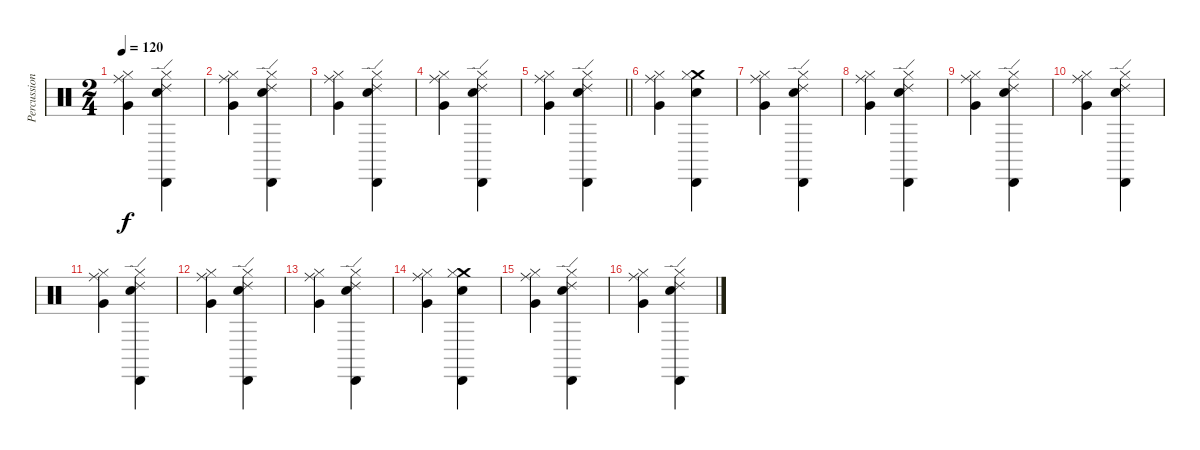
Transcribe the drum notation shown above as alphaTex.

\track ("Percussions" "Percussion") {instrument percussion}
\staff {score}
\articulation defaults
\ts (2 4)
\tempo 120
\clef neutral
\ks c
("Ride (middle)" "Hi-Hat (closed)" "Very Low Tom (hit)").4{dy f} ("Ride (edge) 2" "Cabasa (hit)" "Hi-Hat (closed)" "Electric Snare (hit)").4 |
("Ride (middle)" "Hi-Hat (closed)" "Very Low Tom (hit)").4 ("Ride (edge) 2" "Cabasa (hit)" "Hi-Hat (closed)" "Electric Snare (hit)").4 |
("Ride (middle)" "Hi-Hat (closed)" "Very Low Tom (hit)").4 ("Ride (edge) 2" "Cabasa (hit)" "Hi-Hat (closed)" "Electric Snare (hit)").4 |
("Ride (middle)" "Hi-Hat (closed)" "Very Low Tom (hit)").4 ("Ride (edge) 2" "Cabasa (hit)" "Hi-Hat (closed)" "Electric Snare (hit)").4 |
\barLineRight lightlight
("Ride (middle)" "Hi-Hat (closed)" "Very Low Tom (hit)").4 ("Ride (edge) 2" "Cabasa (hit)" "Hi-Hat (closed)" "Electric Snare (hit)").4 |
("Ride (middle)" "Hi-Hat (closed)" "Very Low Tom (hit)").4 ("Crash medium (hit)" "Cabasa (hit)" "Hi-Hat (closed)" "Electric Snare (hit)").4 |
("Ride (middle)" "Hi-Hat (closed)" "Very Low Tom (hit)").4 ("Ride (edge) 2" "Cabasa (hit)" "Hi-Hat (closed)" "Electric Snare (hit)").4 |
("Ride (middle)" "Hi-Hat (closed)" "Very Low Tom (hit)").4 ("Ride (edge) 2" "Cabasa (hit)" "Hi-Hat (closed)" "Electric Snare (hit)").4 |
("Ride (middle)" "Hi-Hat (closed)" "Very Low Tom (hit)").4 ("Ride (edge) 2" "Cabasa (hit)" "Hi-Hat (closed)" "Electric Snare (hit)").4 |
("Ride (middle)" "Hi-Hat (closed)" "Very Low Tom (hit)").4 ("Ride (edge) 2" "Cabasa (hit)" "Hi-Hat (closed)" "Electric Snare (hit)").4 |
("Ride (middle)" "Hi-Hat (closed)" "Very Low Tom (hit)").4 ("Ride (edge) 2" "Cabasa (hit)" "Hi-Hat (closed)" "Electric Snare (hit)").4 |
("Ride (middle)" "Hi-Hat (closed)" "Very Low Tom (hit)").4 ("Ride (edge) 2" "Cabasa (hit)" "Hi-Hat (closed)" "Electric Snare (hit)").4 |
("Ride (middle)" "Hi-Hat (closed)" "Very Low Tom (hit)").4 ("Ride (edge) 2" "Cabasa (hit)" "Hi-Hat (closed)" "Electric Snare (hit)").4 |
("Ride (middle)" "Hi-Hat (closed)" "Very Low Tom (hit)").4 ("Crash medium (hit)" "Cabasa (hit)" "Hi-Hat (closed)" "Electric Snare (hit)").4 |
("Ride (middle)" "Hi-Hat (closed)" "Very Low Tom (hit)").4 ("Ride (edge) 2" "Cabasa (hit)" "Hi-Hat (closed)" "Electric Snare (hit)").4 |
("Ride (middle)" "Hi-Hat (closed)" "Very Low Tom (hit)").4 ("Ride (edge) 2" "Cabasa (hit)" "Hi-Hat (closed)" "Electric Snare (hit)").4
